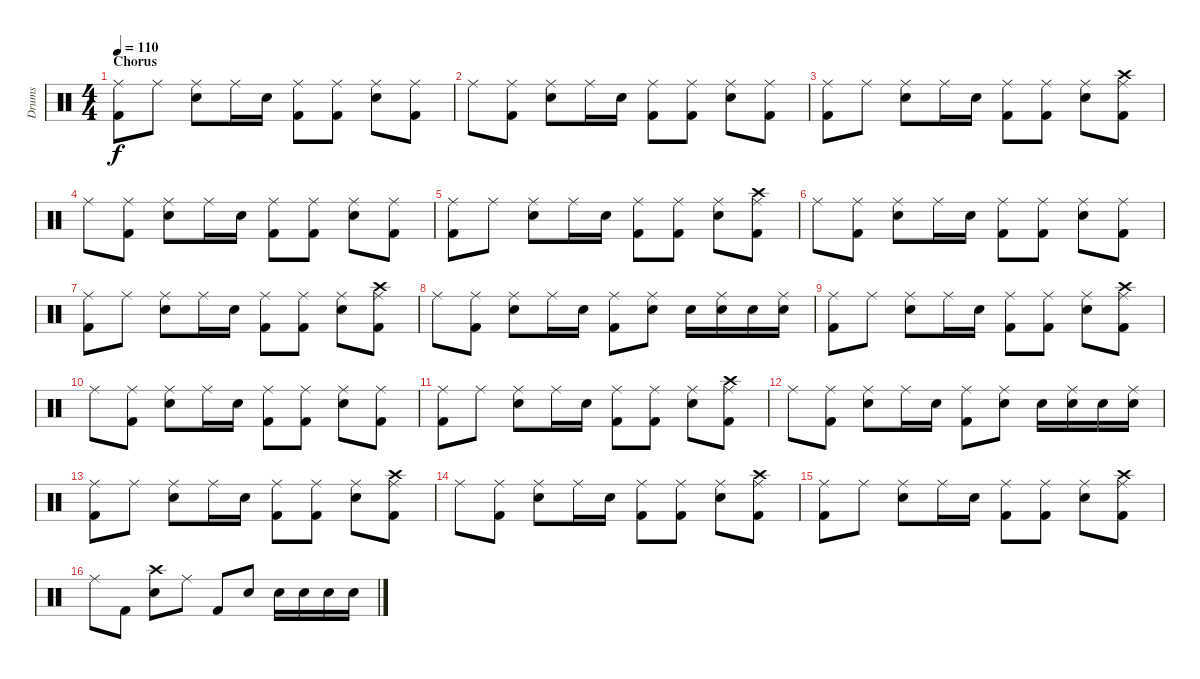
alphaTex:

\track ("Drums" "Drums") {instrument percussion}
\staff {score}
\articulation defaults
\ts (4 4)
\section ("" "Chorus")
\tempo 110
\clef neutral
\ks c
("Ride (middle)" "Kick (hit) 2").8{dy f} "Ride (middle)".8 ("Snare (hit) 2" "Ride (middle)").8 "Ride (middle)".16 "Snare (hit) 2".16 ("Kick (hit) 2" "Ride (middle)").8 ("Kick (hit) 2" "Ride (middle)").8 ("Snare (hit) 2" "Ride (middle)").8 ("Kick (hit) 2" "Ride (middle)").8 |
"Ride (middle)".8 ("Kick (hit) 2" "Ride (middle)").8 ("Snare (hit) 2" "Ride (middle)").8 "Ride (middle)".16 "Snare (hit) 2".16 ("Kick (hit) 2" "Ride (middle)").8 ("Kick (hit) 2" "Ride (middle)").8 ("Snare (hit) 2" "Ride (middle)").8 ("Kick (hit) 2" "Ride (middle)").8 |
("Ride (middle)" "Kick (hit) 2").8 "Ride (middle)".8 ("Snare (hit) 2" "Ride (middle)").8 "Ride (middle)".16 "Snare (hit) 2".16 ("Kick (hit) 2" "Ride (middle)").8 ("Kick (hit) 2" "Ride (middle)").8 ("Snare (hit) 2" "Ride (middle)").8 ("Crash high (hit)" "Kick (hit) 2" "Ride (middle)").8 |
"Ride (middle)".8 ("Kick (hit) 2" "Ride (middle)").8 ("Snare (hit) 2" "Ride (middle)").8 "Ride (middle)".16 "Snare (hit) 2".16 ("Kick (hit) 2" "Ride (middle)").8 ("Kick (hit) 2" "Ride (middle)").8 ("Snare (hit) 2" "Ride (middle)").8 ("Kick (hit) 2" "Ride (middle)").8 |
("Ride (middle)" "Kick (hit) 2").8 "Ride (middle)".8 ("Snare (hit) 2" "Ride (middle)").8 "Ride (middle)".16 "Snare (hit) 2".16 ("Kick (hit) 2" "Ride (middle)").8 ("Kick (hit) 2" "Ride (middle)").8 ("Snare (hit) 2" "Ride (middle)").8 ("Crash high (hit)" "Kick (hit) 2" "Ride (middle)").8 |
"Ride (middle)".8 ("Kick (hit) 2" "Ride (middle)").8 ("Snare (hit) 2" "Ride (middle)").8 "Ride (middle)".16 "Snare (hit) 2".16 ("Kick (hit) 2" "Ride (middle)").8 ("Kick (hit) 2" "Ride (middle)").8 ("Snare (hit) 2" "Ride (middle)").8 ("Kick (hit) 2" "Ride (middle)").8 |
("Ride (middle)" "Kick (hit) 2").8 "Ride (middle)".8 ("Snare (hit) 2" "Ride (middle)").8 "Ride (middle)".16 "Snare (hit) 2".16 ("Kick (hit) 2" "Ride (middle)").8 ("Kick (hit) 2" "Ride (middle)").8 ("Snare (hit) 2" "Ride (middle)").8 ("Crash high (hit)" "Kick (hit) 2" "Ride (middle)").8 |
"Ride (middle)".8 ("Kick (hit) 2" "Ride (middle)").8 ("Snare (hit) 2" "Ride (middle)").8 "Ride (middle)".16 "Snare (hit) 2".16 ("Kick (hit) 2" "Ride (middle)").8 ("Snare (hit) 2" "Ride (middle)").8 "Snare (hit) 2".16 ("Snare (hit) 2" "Ride (middle)").16 "Snare (hit) 2".16 ("Snare (hit) 2" "Ride (middle)").16 |
("Ride (middle)" "Kick (hit) 2").8 "Ride (middle)".8 ("Snare (hit) 2" "Ride (middle)").8 "Ride (middle)".16 "Snare (hit) 2".16 ("Kick (hit) 2" "Ride (middle)").8 ("Kick (hit) 2" "Ride (middle)").8 ("Snare (hit) 2" "Ride (middle)").8 ("Crash high (hit)" "Kick (hit) 2" "Ride (middle)").8 |
"Ride (middle)".8 ("Kick (hit) 2" "Ride (middle)").8 ("Snare (hit) 2" "Ride (middle)").8 "Ride (middle)".16 "Snare (hit) 2".16 ("Kick (hit) 2" "Ride (middle)").8 ("Kick (hit) 2" "Ride (middle)").8 ("Snare (hit) 2" "Ride (middle)").8 ("Kick (hit) 2" "Ride (middle)").8 |
("Ride (middle)" "Kick (hit) 2").8 "Ride (middle)".8 ("Snare (hit) 2" "Ride (middle)").8 "Ride (middle)".16 "Snare (hit) 2".16 ("Kick (hit) 2" "Ride (middle)").8 ("Kick (hit) 2" "Ride (middle)").8 ("Snare (hit) 2" "Ride (middle)").8 ("Crash high (hit)" "Kick (hit) 2" "Ride (middle)").8 |
"Ride (middle)".8 ("Kick (hit) 2" "Ride (middle)").8 ("Snare (hit) 2" "Ride (middle)").8 "Ride (middle)".16 "Snare (hit) 2".16 ("Kick (hit) 2" "Ride (middle)").8 ("Snare (hit) 2" "Ride (middle)").8 "Snare (hit) 2".16 ("Snare (hit) 2" "Ride (middle)").16 "Snare (hit) 2".16 ("Snare (hit) 2" "Ride (middle)").16 |
("Ride (middle)" "Kick (hit) 2").8 "Ride (middle)".8 ("Snare (hit) 2" "Ride (middle)").8 "Ride (middle)".16 "Snare (hit) 2".16 ("Kick (hit) 2" "Ride (middle)").8 ("Kick (hit) 2" "Ride (middle)").8 ("Snare (hit) 2" "Ride (middle)").8 ("Crash high (hit)" "Kick (hit) 2" "Ride (middle)").8 |
"Ride (middle)".8 ("Kick (hit) 2" "Ride (middle)").8 ("Snare (hit) 2" "Ride (middle)").8 "Ride (middle)".16 "Snare (hit) 2".16 ("Kick (hit) 2" "Ride (middle)").8 ("Kick (hit) 2" "Ride (middle)").8 ("Snare (hit) 2" "Ride (middle)").8 ("Crash high (hit)" "Kick (hit) 2" "Ride (middle)").8 |
("Ride (middle)" "Kick (hit) 2").8 "Ride (middle)".8 ("Snare (hit) 2" "Ride (middle)").8 "Ride (middle)".16 "Snare (hit) 2".16 ("Kick (hit) 2" "Ride (middle)").8 ("Kick (hit) 2" "Ride (middle)").8 ("Snare (hit) 2" "Ride (middle)").8 ("Crash high (hit)" "Kick (hit) 2" "Ride (middle)").8 |
"Ride (middle)".8 "Kick (hit) 2".8 ("Snare (hit) 2" "Crash high (hit)").8 "Ride (middle)".8 "Kick (hit) 2".8 "Snare (hit) 2".8 "Snare (hit) 2".16 "Snare (hit) 2".16 "Snare (hit) 2".16 "Snare (hit) 2".16
